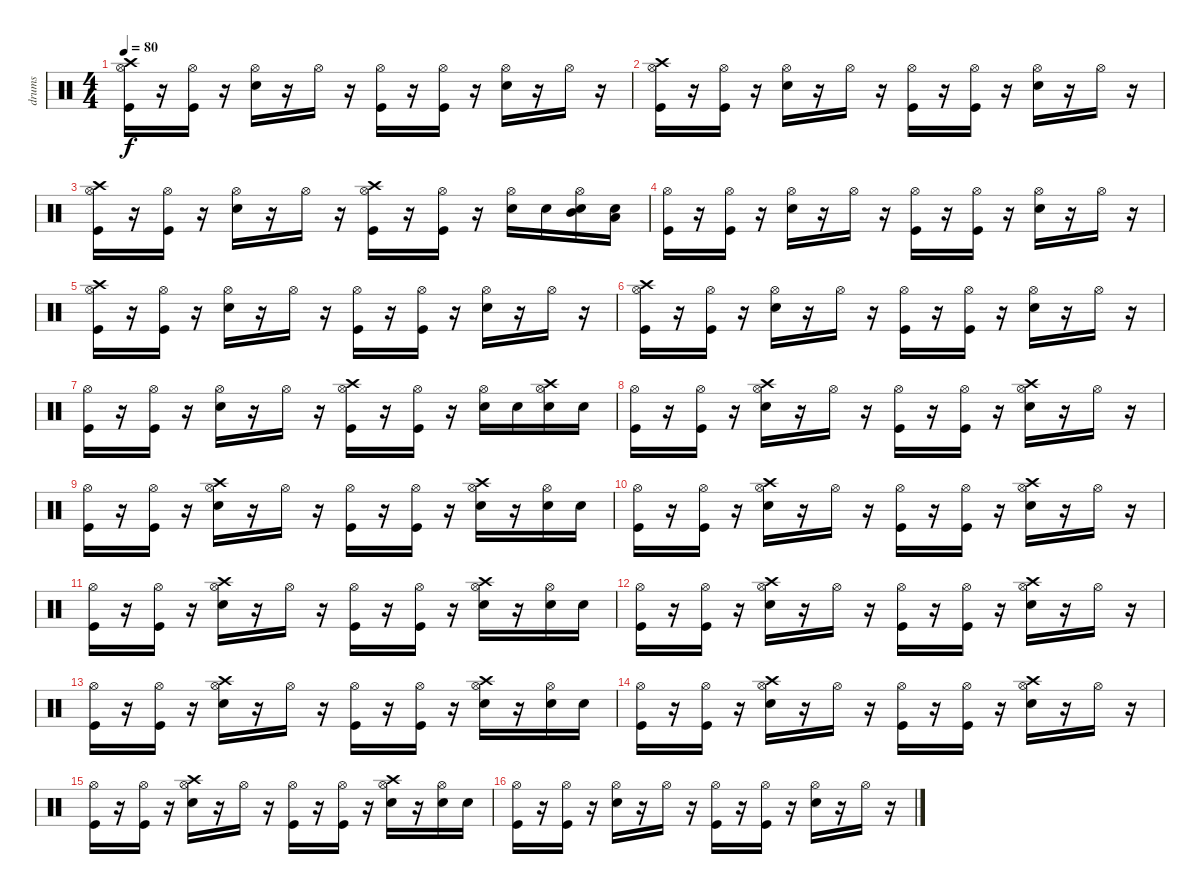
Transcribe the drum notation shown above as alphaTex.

\track ("drums" "drums") {instrument percussion}
\staff {score}
\articulation defaults
\ts (4 4)
\tempo 80
\clef neutral
\ks c
("Hi-Hat (open)" "Kick (hit)" "Crash high (hit)").16{dy f} r.16 ("Hi-Hat (open)" "Kick (hit)").16 r.16 ("Electric Snare (hit)" "Hi-Hat (open)").16 r.16 "Hi-Hat (open)".16 r.16 ("Kick (hit)" "Hi-Hat (open)").16 r.16 ("Hi-Hat (open)" "Kick (hit)").16 r.16 ("Electric Snare (hit)" "Hi-Hat (open)").16 r.16 "Hi-Hat (open)".16 r.16 |
("Hi-Hat (open)" "Kick (hit)" "Crash high (hit)").16 r.16 ("Hi-Hat (open)" "Kick (hit)").16 r.16 ("Electric Snare (hit)" "Hi-Hat (open)").16 r.16 "Hi-Hat (open)".16 r.16 ("Kick (hit)" "Hi-Hat (open)").16 r.16 ("Hi-Hat (open)" "Kick (hit)").16 r.16 ("Electric Snare (hit)" "Hi-Hat (open)").16 r.16 "Hi-Hat (open)".16 r.16 |
("Hi-Hat (open)" "Kick (hit)" "Crash high (hit)").16 r.16 ("Hi-Hat (open)" "Kick (hit)").16 r.16 ("Electric Snare (hit)" "Hi-Hat (open)").16 r.16 "Hi-Hat (open)".16 r.16 ("Kick (hit)" "Hi-Hat (open)" "Crash high (hit)").16 r.16 ("Hi-Hat (open)" "Kick (hit)").16 r.16 ("Electric Snare (hit)" "Hi-Hat (open)").16 "Electric Snare (hit)".16 ("Electric Snare (hit)" "Hi-Hat (open)" "Mid Tom (hit)").16 ("Electric Snare (hit)" "Low Tom (hit)").16 |
("Hi-Hat (open)" "Kick (hit)").16 r.16 ("Hi-Hat (open)" "Kick (hit)").16 r.16 ("Electric Snare (hit)" "Hi-Hat (open)").16 r.16 "Hi-Hat (open)".16 r.16 ("Kick (hit)" "Hi-Hat (open)").16 r.16 ("Hi-Hat (open)" "Kick (hit)").16 r.16 ("Electric Snare (hit)" "Hi-Hat (open)").16 r.16 "Hi-Hat (open)".16 r.16 |
("Hi-Hat (open)" "Kick (hit)" "Crash high (hit)").16 r.16 ("Hi-Hat (open)" "Kick (hit)").16 r.16 ("Electric Snare (hit)" "Hi-Hat (open)").16 r.16 "Hi-Hat (open)".16 r.16 ("Kick (hit)" "Hi-Hat (open)").16 r.16 ("Hi-Hat (open)" "Kick (hit)").16 r.16 ("Electric Snare (hit)" "Hi-Hat (open)").16 r.16 "Hi-Hat (open)".16 r.16 |
("Hi-Hat (open)" "Kick (hit)" "Crash high (hit)").16 r.16 ("Hi-Hat (open)" "Kick (hit)").16 r.16 ("Electric Snare (hit)" "Hi-Hat (open)").16 r.16 "Hi-Hat (open)".16 r.16 ("Kick (hit)" "Hi-Hat (open)").16 r.16 ("Hi-Hat (open)" "Kick (hit)").16 r.16 ("Electric Snare (hit)" "Hi-Hat (open)").16 r.16 "Hi-Hat (open)".16 r.16 |
("Hi-Hat (open)" "Kick (hit)").16 r.16 ("Hi-Hat (open)" "Kick (hit)").16 r.16 ("Electric Snare (hit)" "Hi-Hat (open)").16 r.16 "Hi-Hat (open)".16 r.16 ("Kick (hit)" "Hi-Hat (open)" "Crash high (hit)").16 r.16 ("Hi-Hat (open)" "Kick (hit)").16 r.16 ("Electric Snare (hit)" "Hi-Hat (open)").16 "Electric Snare (hit)".16 ("Electric Snare (hit)" "Hi-Hat (open)" "Crash high (hit)").16 "Electric Snare (hit)".16 |
("Kick (hit)" "Hi-Hat (open)").16 r.16 ("Kick (hit)" "Hi-Hat (open)").16 r.16 ("Hi-Hat (open)" "Electric Snare (hit)" "Crash high (hit)").16 r.16 "Hi-Hat (open)".16 r.16 ("Hi-Hat (open)" "Kick (hit)").16 r.16 ("Hi-Hat (open)" "Kick (hit)").16 r.16 ("Hi-Hat (open)" "Electric Snare (hit)" "Crash high (hit)").16 r.16 "Hi-Hat (open)".16 r.16 |
("Kick (hit)" "Hi-Hat (open)").16 r.16 ("Hi-Hat (open)" "Kick (hit)").16 r.16 ("Hi-Hat (open)" "Electric Snare (hit)" "Crash high (hit)").16 r.16 "Hi-Hat (open)".16 r.16 ("Kick (hit)" "Hi-Hat (open)").16 r.16 ("Hi-Hat (open)" "Kick (hit)").16 r.16 ("Hi-Hat (open)" "Electric Snare (hit)" "Crash high (hit)").16 r.16 ("Electric Snare (hit)" "Hi-Hat (open)").16 "Electric Snare (hit)".16 |
("Kick (hit)" "Hi-Hat (open)").16 r.16 ("Kick (hit)" "Hi-Hat (open)").16 r.16 ("Hi-Hat (open)" "Electric Snare (hit)" "Crash high (hit)").16 r.16 "Hi-Hat (open)".16 r.16 ("Hi-Hat (open)" "Kick (hit)").16 r.16 ("Hi-Hat (open)" "Kick (hit)").16 r.16 ("Hi-Hat (open)" "Electric Snare (hit)" "Crash high (hit)").16 r.16 "Hi-Hat (open)".16 r.16 |
("Kick (hit)" "Hi-Hat (open)").16 r.16 ("Hi-Hat (open)" "Kick (hit)").16 r.16 ("Hi-Hat (open)" "Electric Snare (hit)" "Crash high (hit)").16 r.16 "Hi-Hat (open)".16 r.16 ("Kick (hit)" "Hi-Hat (open)").16 r.16 ("Hi-Hat (open)" "Kick (hit)").16 r.16 ("Hi-Hat (open)" "Electric Snare (hit)" "Crash high (hit)").16 r.16 ("Electric Snare (hit)" "Hi-Hat (open)").16 "Electric Snare (hit)".16 |
("Kick (hit)" "Hi-Hat (open)").16 r.16 ("Kick (hit)" "Hi-Hat (open)").16 r.16 ("Hi-Hat (open)" "Electric Snare (hit)" "Crash high (hit)").16 r.16 "Hi-Hat (open)".16 r.16 ("Hi-Hat (open)" "Kick (hit)").16 r.16 ("Hi-Hat (open)" "Kick (hit)").16 r.16 ("Hi-Hat (open)" "Electric Snare (hit)" "Crash high (hit)").16 r.16 "Hi-Hat (open)".16 r.16 |
("Kick (hit)" "Hi-Hat (open)").16 r.16 ("Hi-Hat (open)" "Kick (hit)").16 r.16 ("Hi-Hat (open)" "Electric Snare (hit)" "Crash high (hit)").16 r.16 "Hi-Hat (open)".16 r.16 ("Kick (hit)" "Hi-Hat (open)").16 r.16 ("Hi-Hat (open)" "Kick (hit)").16 r.16 ("Hi-Hat (open)" "Electric Snare (hit)" "Crash high (hit)").16 r.16 ("Electric Snare (hit)" "Hi-Hat (open)").16 "Electric Snare (hit)".16 |
("Kick (hit)" "Hi-Hat (open)").16 r.16 ("Kick (hit)" "Hi-Hat (open)").16 r.16 ("Hi-Hat (open)" "Electric Snare (hit)" "Crash high (hit)").16 r.16 "Hi-Hat (open)".16 r.16 ("Hi-Hat (open)" "Kick (hit)").16 r.16 ("Hi-Hat (open)" "Kick (hit)").16 r.16 ("Hi-Hat (open)" "Electric Snare (hit)" "Crash high (hit)").16 r.16 "Hi-Hat (open)".16 r.16 |
("Kick (hit)" "Hi-Hat (open)").16 r.16 ("Hi-Hat (open)" "Kick (hit)").16 r.16 ("Hi-Hat (open)" "Electric Snare (hit)" "Crash high (hit)").16 r.16 "Hi-Hat (open)".16 r.16 ("Kick (hit)" "Hi-Hat (open)").16 r.16 ("Hi-Hat (open)" "Kick (hit)").16 r.16 ("Hi-Hat (open)" "Electric Snare (hit)" "Crash high (hit)").16 r.16 ("Electric Snare (hit)" "Hi-Hat (open)").16 "Electric Snare (hit)".16 |
("Hi-Hat (open)" "Kick (hit)").16 r.16 ("Kick (hit)" "Hi-Hat (open)").16 r.16 ("Hi-Hat (open)" "Electric Snare (hit)").16 r.16 "Hi-Hat (open)".16 r.16 ("Hi-Hat (open)" "Kick (hit)").16 r.16 ("Hi-Hat (open)" "Kick (hit)").16 r.16 ("Hi-Hat (open)" "Electric Snare (hit)").16 r.16 "Hi-Hat (open)".16 r.16
